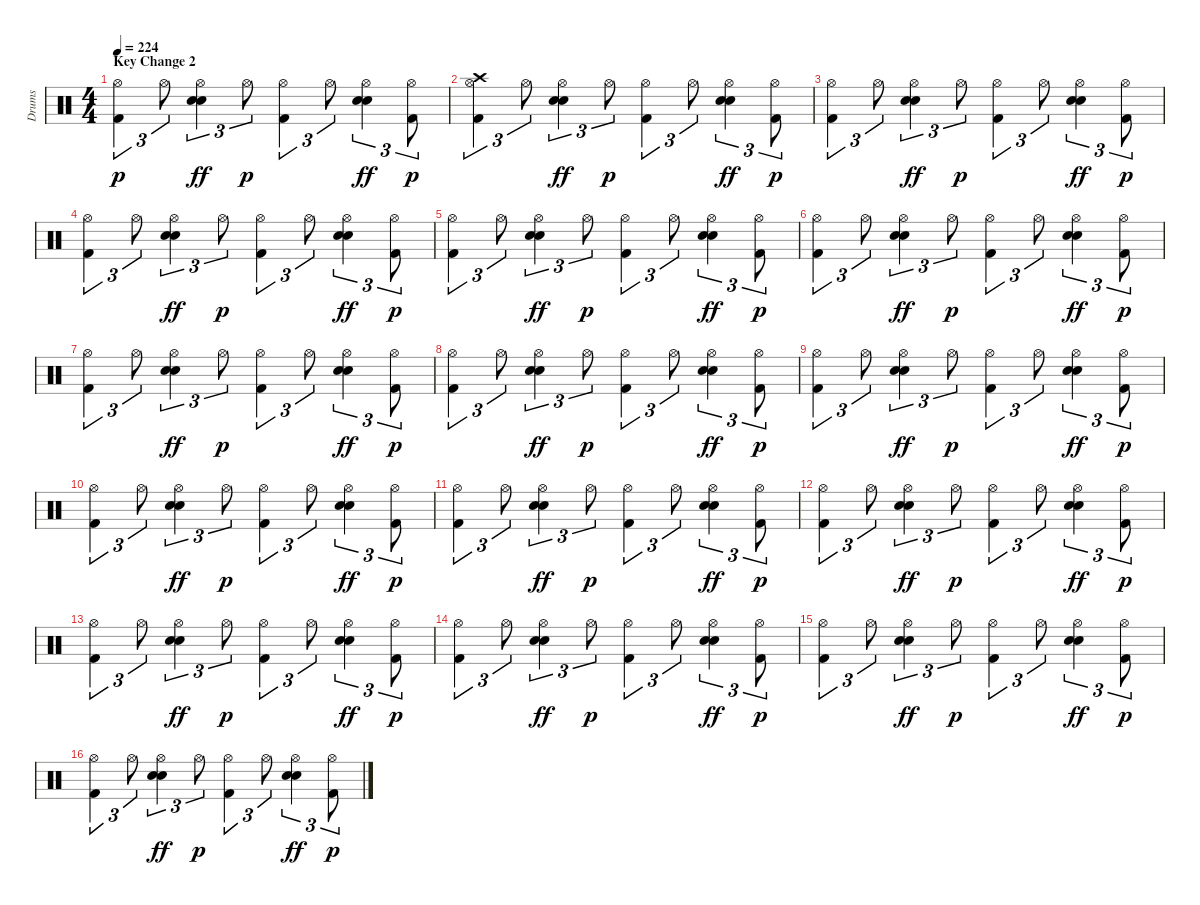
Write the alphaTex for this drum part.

\track ("Drums" "Drums") {instrument percussion}
\staff {score}
\articulation defaults
\ts (4 4)
\section ("" "Key Change 2")
\tempo 224
\clef neutral
\ks c
("Hi-Hat (open)" "Kick (hit) 2").4{tu (3 2) dy p} "Hi-Hat (open)".8{tu (3 2)} ("Hand Clap (hit)" "Hi-Hat (open)" "Snare (hit) 2").4{tu (3 2) dy ff} "Hi-Hat (open)".8{tu (3 2) dy p} ("Hi-Hat (open)" "Kick (hit) 2").4{tu (3 2)} "Hi-Hat (open)".8{tu (3 2)} ("Hand Clap (hit)" "Hi-Hat (open)" "Snare (hit) 2").4{tu (3 2) dy ff} ("Hi-Hat (open)" "Kick (hit) 2").8{tu (3 2) dy p} |
("Crash high (hit)" "Hi-Hat (open)" "Kick (hit) 2").4{tu (3 2)} "Hi-Hat (open)".8{tu (3 2)} ("Hand Clap (hit)" "Hi-Hat (open)" "Snare (hit) 2").4{tu (3 2) dy ff} "Hi-Hat (open)".8{tu (3 2) dy p} ("Hi-Hat (open)" "Kick (hit) 2").4{tu (3 2)} "Hi-Hat (open)".8{tu (3 2)} ("Hand Clap (hit)" "Hi-Hat (open)" "Snare (hit) 2").4{tu (3 2) dy ff} ("Hi-Hat (open)" "Kick (hit) 2").8{tu (3 2) dy p} |
("Hi-Hat (open)" "Kick (hit) 2").4{tu (3 2)} "Hi-Hat (open)".8{tu (3 2)} ("Hand Clap (hit)" "Hi-Hat (open)" "Snare (hit) 2").4{tu (3 2) dy ff} "Hi-Hat (open)".8{tu (3 2) dy p} ("Hi-Hat (open)" "Kick (hit) 2").4{tu (3 2)} "Hi-Hat (open)".8{tu (3 2)} ("Hand Clap (hit)" "Hi-Hat (open)" "Snare (hit) 2").4{tu (3 2) dy ff} ("Hi-Hat (open)" "Kick (hit) 2").8{tu (3 2) dy p} |
("Hi-Hat (open)" "Kick (hit) 2").4{tu (3 2)} "Hi-Hat (open)".8{tu (3 2)} ("Hand Clap (hit)" "Hi-Hat (open)" "Snare (hit) 2").4{tu (3 2) dy ff} "Hi-Hat (open)".8{tu (3 2) dy p} ("Hi-Hat (open)" "Kick (hit) 2").4{tu (3 2)} "Hi-Hat (open)".8{tu (3 2)} ("Hand Clap (hit)" "Hi-Hat (open)" "Snare (hit) 2").4{tu (3 2) dy ff} ("Hi-Hat (open)" "Kick (hit) 2").8{tu (3 2) dy p} |
("Hi-Hat (open)" "Kick (hit) 2").4{tu (3 2)} "Hi-Hat (open)".8{tu (3 2)} ("Hand Clap (hit)" "Hi-Hat (open)" "Snare (hit) 2").4{tu (3 2) dy ff} "Hi-Hat (open)".8{tu (3 2) dy p} ("Hi-Hat (open)" "Kick (hit) 2").4{tu (3 2)} "Hi-Hat (open)".8{tu (3 2)} ("Hand Clap (hit)" "Hi-Hat (open)" "Snare (hit) 2").4{tu (3 2) dy ff} ("Hi-Hat (open)" "Kick (hit) 2").8{tu (3 2) dy p} |
("Hi-Hat (open)" "Kick (hit) 2").4{tu (3 2)} "Hi-Hat (open)".8{tu (3 2)} ("Hand Clap (hit)" "Hi-Hat (open)" "Snare (hit) 2").4{tu (3 2) dy ff} "Hi-Hat (open)".8{tu (3 2) dy p} ("Hi-Hat (open)" "Kick (hit) 2").4{tu (3 2)} "Hi-Hat (open)".8{tu (3 2)} ("Hand Clap (hit)" "Hi-Hat (open)" "Snare (hit) 2").4{tu (3 2) dy ff} ("Hi-Hat (open)" "Kick (hit) 2").8{tu (3 2) dy p} |
("Hi-Hat (open)" "Kick (hit) 2").4{tu (3 2)} "Hi-Hat (open)".8{tu (3 2)} ("Hand Clap (hit)" "Hi-Hat (open)" "Snare (hit) 2").4{tu (3 2) dy ff} "Hi-Hat (open)".8{tu (3 2) dy p} ("Hi-Hat (open)" "Kick (hit) 2").4{tu (3 2)} "Hi-Hat (open)".8{tu (3 2)} ("Hand Clap (hit)" "Hi-Hat (open)" "Snare (hit) 2").4{tu (3 2) dy ff} ("Hi-Hat (open)" "Kick (hit) 2").8{tu (3 2) dy p} |
("Hi-Hat (open)" "Kick (hit) 2").4{tu (3 2)} "Hi-Hat (open)".8{tu (3 2)} ("Hand Clap (hit)" "Hi-Hat (open)" "Snare (hit) 2").4{tu (3 2) dy ff} "Hi-Hat (open)".8{tu (3 2) dy p} ("Hi-Hat (open)" "Kick (hit) 2").4{tu (3 2)} "Hi-Hat (open)".8{tu (3 2)} ("Hand Clap (hit)" "Hi-Hat (open)" "Snare (hit) 2").4{tu (3 2) dy ff} ("Hi-Hat (open)" "Kick (hit) 2").8{tu (3 2) dy p} |
("Hi-Hat (open)" "Kick (hit) 2").4{tu (3 2)} "Hi-Hat (open)".8{tu (3 2)} ("Hand Clap (hit)" "Hi-Hat (open)" "Snare (hit) 2").4{tu (3 2) dy ff} "Hi-Hat (open)".8{tu (3 2) dy p} ("Hi-Hat (open)" "Kick (hit) 2").4{tu (3 2)} "Hi-Hat (open)".8{tu (3 2)} ("Hand Clap (hit)" "Hi-Hat (open)" "Snare (hit) 2").4{tu (3 2) dy ff} ("Hi-Hat (open)" "Kick (hit) 2").8{tu (3 2) dy p} |
("Hi-Hat (open)" "Kick (hit) 2").4{tu (3 2)} "Hi-Hat (open)".8{tu (3 2)} ("Hand Clap (hit)" "Hi-Hat (open)" "Snare (hit) 2").4{tu (3 2) dy ff} "Hi-Hat (open)".8{tu (3 2) dy p} ("Hi-Hat (open)" "Kick (hit) 2").4{tu (3 2)} "Hi-Hat (open)".8{tu (3 2)} ("Hand Clap (hit)" "Hi-Hat (open)" "Snare (hit) 2").4{tu (3 2) dy ff} ("Hi-Hat (open)" "Kick (hit) 2").8{tu (3 2) dy p} |
("Hi-Hat (open)" "Kick (hit) 2").4{tu (3 2)} "Hi-Hat (open)".8{tu (3 2)} ("Hand Clap (hit)" "Hi-Hat (open)" "Snare (hit) 2").4{tu (3 2) dy ff} "Hi-Hat (open)".8{tu (3 2) dy p} ("Hi-Hat (open)" "Kick (hit) 2").4{tu (3 2)} "Hi-Hat (open)".8{tu (3 2)} ("Hand Clap (hit)" "Hi-Hat (open)" "Snare (hit) 2").4{tu (3 2) dy ff} ("Hi-Hat (open)" "Kick (hit) 2").8{tu (3 2) dy p} |
("Hi-Hat (open)" "Kick (hit) 2").4{tu (3 2)} "Hi-Hat (open)".8{tu (3 2)} ("Hand Clap (hit)" "Hi-Hat (open)" "Snare (hit) 2").4{tu (3 2) dy ff} "Hi-Hat (open)".8{tu (3 2) dy p} ("Hi-Hat (open)" "Kick (hit) 2").4{tu (3 2)} "Hi-Hat (open)".8{tu (3 2)} ("Hand Clap (hit)" "Hi-Hat (open)" "Snare (hit) 2").4{tu (3 2) dy ff} ("Hi-Hat (open)" "Kick (hit) 2").8{tu (3 2) dy p} |
("Hi-Hat (open)" "Kick (hit) 2").4{tu (3 2)} "Hi-Hat (open)".8{tu (3 2)} ("Hand Clap (hit)" "Hi-Hat (open)" "Snare (hit) 2").4{tu (3 2) dy ff} "Hi-Hat (open)".8{tu (3 2) dy p} ("Hi-Hat (open)" "Kick (hit) 2").4{tu (3 2)} "Hi-Hat (open)".8{tu (3 2)} ("Hand Clap (hit)" "Hi-Hat (open)" "Snare (hit) 2").4{tu (3 2) dy ff} ("Hi-Hat (open)" "Kick (hit) 2").8{tu (3 2) dy p} |
("Hi-Hat (open)" "Kick (hit) 2").4{tu (3 2)} "Hi-Hat (open)".8{tu (3 2)} ("Hand Clap (hit)" "Hi-Hat (open)" "Snare (hit) 2").4{tu (3 2) dy ff} "Hi-Hat (open)".8{tu (3 2) dy p} ("Hi-Hat (open)" "Kick (hit) 2").4{tu (3 2)} "Hi-Hat (open)".8{tu (3 2)} ("Hand Clap (hit)" "Hi-Hat (open)" "Snare (hit) 2").4{tu (3 2) dy ff} ("Hi-Hat (open)" "Kick (hit) 2").8{tu (3 2) dy p} |
("Hi-Hat (open)" "Kick (hit) 2").4{tu (3 2)} "Hi-Hat (open)".8{tu (3 2)} ("Hand Clap (hit)" "Hi-Hat (open)" "Snare (hit) 2").4{tu (3 2) dy ff} "Hi-Hat (open)".8{tu (3 2) dy p} ("Hi-Hat (open)" "Kick (hit) 2").4{tu (3 2)} "Hi-Hat (open)".8{tu (3 2)} ("Hand Clap (hit)" "Hi-Hat (open)" "Snare (hit) 2").4{tu (3 2) dy ff} ("Hi-Hat (open)" "Kick (hit) 2").8{tu (3 2) dy p} |
("Hi-Hat (open)" "Kick (hit) 2").4{tu (3 2)} "Hi-Hat (open)".8{tu (3 2)} ("Hand Clap (hit)" "Hi-Hat (open)" "Snare (hit) 2").4{tu (3 2) dy ff} "Hi-Hat (open)".8{tu (3 2) dy p} ("Hi-Hat (open)" "Kick (hit) 2").4{tu (3 2)} "Hi-Hat (open)".8{tu (3 2)} ("Hand Clap (hit)" "Hi-Hat (open)" "Snare (hit) 2").4{tu (3 2) dy ff} ("Hi-Hat (open)" "Kick (hit) 2").8{tu (3 2) dy p}
